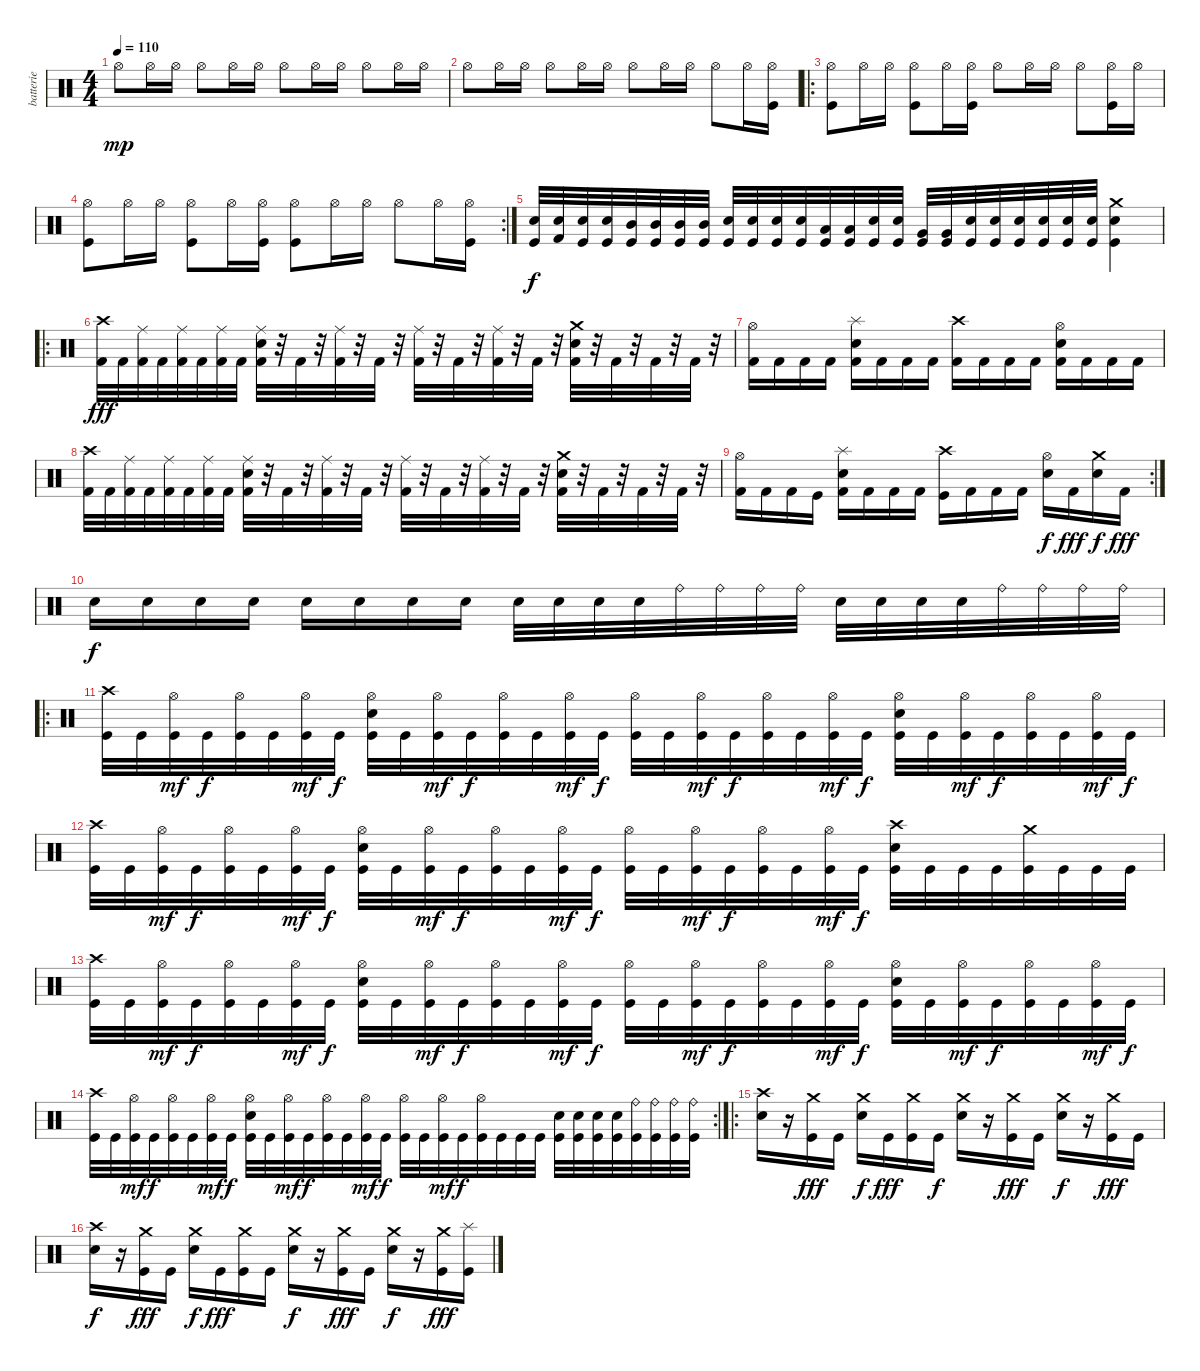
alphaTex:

\track ("batterie" "batterie") {instrument percussion}
\staff {score}
\articulation defaults
\ts (4 4)
\tempo 110
\clef neutral
\ks c "Hi-Hat (open)".8{dy mp} "Hi-Hat (open)".16 "Hi-Hat (open)".16 "Hi-Hat (open)".8 "Hi-Hat (open)".16 "Hi-Hat (open)".16 "Hi-Hat (open)".8 "Hi-Hat (open)".16 "Hi-Hat (open)".16 "Hi-Hat (open)".8 "Hi-Hat (open)".16 "Hi-Hat (open)".16
|
"Hi-Hat (open)".8 "Hi-Hat (open)".16 "Hi-Hat (open)".16 "Hi-Hat (open)".8 "Hi-Hat (open)".16 "Hi-Hat (open)".16 "Hi-Hat (open)".8 "Hi-Hat (open)".16 "Hi-Hat (open)".16 "Hi-Hat (open)".8 "Hi-Hat (open)".16 ("Hi-Hat (open)" "Kick (hit)").16 |
\ro
("Hi-Hat (open)" "Kick (hit)").8 "Hi-Hat (open)".16 "Hi-Hat (open)".16 ("Hi-Hat (open)" "Kick (hit)").8 "Hi-Hat (open)".16 ("Hi-Hat (open)" "Kick (hit)").16 "Hi-Hat (open)".8 "Hi-Hat (open)".16 "Hi-Hat (open)".16 "Hi-Hat (open)".8 ("Hi-Hat (open)" "Kick (hit)").16 "Hi-Hat (open)".16 |
\rc 2
("Hi-Hat (open)" "Kick (hit)").8 "Hi-Hat (open)".16 "Hi-Hat (open)".16 ("Hi-Hat (open)" "Kick (hit)").8 "Hi-Hat (open)".16 ("Hi-Hat (open)" "Kick (hit)").16 ("Hi-Hat (open)" "Kick (hit)").8 "Hi-Hat (open)".16 "Hi-Hat (open)".16 "Hi-Hat (open)".8 "Hi-Hat (open)".16 ("Hi-Hat (open)" "Kick (hit)").16 |
("Electric Snare (hit)" "Kick (hit)").32{dy f} ("Electric Snare (hit)" "Kick (hit) 2").32 ("Electric Snare (hit)" "Kick (hit)").32 ("Electric Snare (hit)" "Kick (hit)").32 ("Mid Tom (hit)" "Kick (hit)").32 ("Mid Tom (hit)" "Kick (hit)").32 ("Mid Tom (hit)" "Kick (hit)").32 ("Mid Tom (hit)" "Kick (hit)").32 ("Electric Snare (hit)" "Kick (hit)").32 ("Electric Snare (hit)" "Kick (hit)").32 ("Electric Snare (hit)" "Kick (hit)").32 ("Electric Snare (hit)" "Kick (hit)").32 ("Low Tom (hit)" "Kick (hit)").32 ("Low Tom (hit)" "Kick (hit)").32 ("Electric Snare (hit)" "Kick (hit)").32 ("Electric Snare (hit)" "Kick (hit)").32 ("Very Low Tom (hit)" "Kick (hit)").32 ("Very Low Tom (hit)" "Kick (hit)").32 ("Electric Snare (hit)" "Kick (hit)").32 ("Electric Snare (hit)" "Kick (hit)").32 ("Electric Snare (hit)" "Kick (hit)").32 ("Electric Snare (hit)" "Kick (hit)").32 ("Electric Snare (hit)" "Kick (hit)").32 ("Electric Snare (hit)" "Kick (hit)").32 ("Crash medium (hit)" "Electric Snare (hit)" "Kick (hit)").4 |
\ro
("Crash high (hit)" "Kick (hit) 2").32{dy fff} "Kick (hit) 2".32 ("Ride (middle)" "Kick (hit) 2").32 "Kick (hit) 2".32 ("Ride (middle)" "Kick (hit) 2").32 "Kick (hit) 2".32 ("Ride (middle)" "Kick (hit) 2").32 "Kick (hit) 2".32 ("Ride (middle)" "Electric Snare (hit)" "Kick (hit) 2").32 r.32 "Kick (hit) 2".32 r.32 ("Ride (middle)" "Kick (hit) 2").32 r.32 "Kick (hit) 2".32 r.32 ("Ride (middle)" "Kick (hit) 2").32 r.32 "Kick (hit) 2".32 r.32 ("Ride (middle)" "Kick (hit) 2").32 r.32 "Kick (hit) 2".32 r.32 ("Crash medium (hit)" "Electric Snare (hit)" "Kick (hit) 2").32 r.32 "Kick (hit) 2".32 r.32 "Kick (hit) 2".32 r.32 "Kick (hit) 2".32 r.32 |
("Hi-Hat (open)" "Kick (hit) 2").16 "Kick (hit) 2".16 "Kick (hit) 2".16 "Kick (hit) 2".16 ("Splash (hit)" "Electric Snare (hit)" "Kick (hit) 2").16 "Kick (hit) 2".16 "Kick (hit) 2".16 "Kick (hit) 2".16 ("Crash high (hit)" "Kick (hit) 2").16 "Kick (hit) 2".16 "Kick (hit) 2".16 "Kick (hit) 2".16 ("Hi-Hat (open)" "Electric Snare (hit)" "Kick (hit) 2").16 "Kick (hit) 2".16 "Kick (hit) 2".16 "Kick (hit) 2".16 |
("Crash high (hit)" "Kick (hit) 2").32 "Kick (hit) 2".32 ("Ride (middle)" "Kick (hit) 2").32 "Kick (hit) 2".32 ("Ride (middle)" "Kick (hit) 2").32 "Kick (hit) 2".32 ("Ride (middle)" "Kick (hit) 2").32 "Kick (hit) 2".32 ("Ride (middle)" "Electric Snare (hit)" "Kick (hit) 2").32 r.32 "Kick (hit) 2".32 r.32 ("Ride (middle)" "Kick (hit) 2").32 r.32 "Kick (hit) 2".32 r.32 ("Ride (middle)" "Kick (hit) 2").32 r.32 "Kick (hit) 2".32 r.32 ("Ride (middle)" "Kick (hit) 2").32 r.32 "Kick (hit) 2".32 r.32 ("Crash medium (hit)" "Electric Snare (hit)" "Kick (hit) 2").32 r.32 "Kick (hit) 2".32 r.32 "Kick (hit) 2".32 r.32 "Kick (hit) 2".32 r.32 |
\rc 2
("Hi-Hat (open)" "Kick (hit) 2").16 "Kick (hit) 2".16 "Kick (hit) 2".16 "Kick (hit)".16 ("Splash (hit)" "Electric Snare (hit)" "Kick (hit) 2").16 "Kick (hit) 2".16 "Kick (hit) 2".16 "Kick (hit) 2".16 ("Crash high (hit)" "Kick (hit)").16 "Kick (hit) 2".16 "Kick (hit) 2".16 "Kick (hit) 2".16 ("Hi-Hat (open)" "Electric Snare (hit)").16{dy f} "Kick (hit) 2".16{dy fff} ("Crash medium (hit)" "Electric Snare (hit)").16{dy f} "Kick (hit) 2".16{dy fff} |
"Electric Snare (hit)".16{dy f} "Electric Snare (hit)".16 "Electric Snare (hit)".16 "Electric Snare (hit)".16 "Electric Snare (hit)".16 "Electric Snare (hit)".16 "Electric Snare (hit)".16 "Electric Snare (hit)".16 "Electric Snare (hit)".32 "Electric Snare (hit)".32 "Electric Snare (hit)".32 "Electric Snare (hit)".32 "Ride (bell)".32 "Ride (bell)".32 "Ride (bell)".32 "Ride (bell)".32 "Electric Snare (hit)".32 "Electric Snare (hit)".32 "Electric Snare (hit)".32 "Electric Snare (hit)".32 "Ride (bell)".32 "Ride (bell)".32 "Ride (bell)".32 "Ride (bell)".32 |
\ro
("Crash high (hit)" "Kick (hit)").32 "Kick (hit)".32 ("Hi-Hat (open)" "Kick (hit)").32{dy mf} "Kick (hit)".32{dy f} ("Hi-Hat (open)" "Kick (hit)").32 "Kick (hit)".32 ("Hi-Hat (open)" "Kick (hit)").32{dy mf} "Kick (hit)".32{dy f} ("Hi-Hat (open)" "Electric Snare (hit)" "Kick (hit)").32 "Kick (hit)".32 ("Hi-Hat (open)" "Kick (hit)").32{dy mf} "Kick (hit)".32{dy f} ("Hi-Hat (open)" "Kick (hit)").32 "Kick (hit)".32 ("Hi-Hat (open)" "Kick (hit)").32{dy mf} "Kick (hit)".32{dy f} ("Hi-Hat (open)" "Kick (hit)").32 "Kick (hit)".32 ("Hi-Hat (open)" "Kick (hit)").32{dy mf} "Kick (hit)".32{dy f} ("Hi-Hat (open)" "Kick (hit)").32 "Kick (hit)".32 ("Hi-Hat (open)" "Kick (hit)").32{dy mf} "Kick (hit)".32{dy f} ("Hi-Hat (open)" "Electric Snare (hit)" "Kick (hit)").32 "Kick (hit)".32 ("Hi-Hat (open)" "Kick (hit)").32{dy mf} "Kick (hit)".32{dy f} ("Hi-Hat (open)" "Kick (hit)").32 "Kick (hit)".32 ("Hi-Hat (open)" "Kick (hit)").32{dy mf} "Kick (hit)".32{dy f} |
("Crash high (hit)" "Kick (hit)").32 "Kick (hit)".32 ("Hi-Hat (open)" "Kick (hit)").32{dy mf} "Kick (hit)".32{dy f} ("Hi-Hat (open)" "Kick (hit)").32 "Kick (hit)".32 ("Hi-Hat (open)" "Kick (hit)").32{dy mf} "Kick (hit)".32{dy f} ("Hi-Hat (open)" "Electric Snare (hit)" "Kick (hit)").32 "Kick (hit)".32 ("Hi-Hat (open)" "Kick (hit)").32{dy mf} "Kick (hit)".32{dy f} ("Hi-Hat (open)" "Kick (hit)").32 "Kick (hit)".32 ("Hi-Hat (open)" "Kick (hit)").32{dy mf} "Kick (hit)".32{dy f} ("Hi-Hat (open)" "Kick (hit)").32 "Kick (hit)".32 ("Hi-Hat (open)" "Kick (hit)").32{dy mf} "Kick (hit)".32{dy f} ("Hi-Hat (open)" "Kick (hit)").32 "Kick (hit)".32 ("Hi-Hat (open)" "Kick (hit)").32{dy mf} "Kick (hit)".32{dy f} ("Crash high (hit)" "Electric Snare (hit)" "Kick (hit)").32 "Kick (hit)".32 "Kick (hit)".32 "Kick (hit)".32 ("Crash medium (hit)" "Kick (hit)").32 "Kick (hit)".32 "Kick (hit)".32 "Kick (hit)".32 |
("Crash high (hit)" "Kick (hit)").32 "Kick (hit)".32 ("Hi-Hat (open)" "Kick (hit)").32{dy mf} "Kick (hit)".32{dy f} ("Hi-Hat (open)" "Kick (hit)").32 "Kick (hit)".32 ("Hi-Hat (open)" "Kick (hit)").32{dy mf} "Kick (hit)".32{dy f} ("Hi-Hat (open)" "Electric Snare (hit)" "Kick (hit)").32 "Kick (hit)".32 ("Hi-Hat (open)" "Kick (hit)").32{dy mf} "Kick (hit)".32{dy f} ("Hi-Hat (open)" "Kick (hit)").32 "Kick (hit)".32 ("Hi-Hat (open)" "Kick (hit)").32{dy mf} "Kick (hit)".32{dy f} ("Hi-Hat (open)" "Kick (hit)").32 "Kick (hit)".32 ("Hi-Hat (open)" "Kick (hit)").32{dy mf} "Kick (hit)".32{dy f} ("Hi-Hat (open)" "Kick (hit)").32 "Kick (hit)".32 ("Hi-Hat (open)" "Kick (hit)").32{dy mf} "Kick (hit)".32{dy f} ("Hi-Hat (open)" "Electric Snare (hit)" "Kick (hit)").32 "Kick (hit)".32 ("Hi-Hat (open)" "Kick (hit)").32{dy mf} "Kick (hit)".32{dy f} ("Hi-Hat (open)" "Kick (hit)").32 "Kick (hit)".32 ("Hi-Hat (open)" "Kick (hit)").32{dy mf} "Kick (hit)".32{dy f} |
\rc 2
("Crash high (hit)" "Kick (hit)").32 "Kick (hit)".32 ("Hi-Hat (open)" "Kick (hit)").32{dy mf} "Kick (hit)".32{dy f} ("Hi-Hat (open)" "Kick (hit)").32 "Kick (hit)".32 ("Hi-Hat (open)" "Kick (hit)").32{dy mf} "Kick (hit)".32{dy f} ("Hi-Hat (open)" "Electric Snare (hit)" "Kick (hit)").32 "Kick (hit)".32 ("Hi-Hat (open)" "Kick (hit)").32{dy mf} "Kick (hit)".32{dy f} ("Hi-Hat (open)" "Kick (hit)").32 "Kick (hit)".32 ("Hi-Hat (open)" "Kick (hit)").32{dy mf} "Kick (hit)".32{dy f} ("Hi-Hat (open)" "Kick (hit)").32 "Kick (hit)".32 ("Hi-Hat (open)" "Kick (hit)").32{dy mf} "Kick (hit)".32{dy f} ("Hi-Hat (open)" "Kick (hit)").32 "Kick (hit)".32 "Kick (hit)".32 "Kick (hit)".32 ("Electric Snare (hit)" "Kick (hit)").32 ("Electric Snare (hit)" "Kick (hit)").32 ("Electric Snare (hit)" "Kick (hit)").32 ("Electric Snare (hit)" "Kick (hit)").32 ("Ride (bell)" "Kick (hit)").32 ("Ride (bell)" "Kick (hit)").32 ("Ride (bell)" "Kick (hit)").32 ("Ride (bell)" "Kick (hit)").32 |
\ro
("Crash high (hit)" "Electric Snare (hit)").16 r.16 ("Crash medium (hit)" "Kick (hit)").16{dy fff} "Kick (hit)".16 ("Crash medium (hit)" "Electric Snare (hit)").16{dy f} "Kick (hit)".16{dy fff} ("Crash medium (hit)" "Kick (hit)").16 "Kick (hit)".16{dy f} ("Crash medium (hit)" "Electric Snare (hit)").16 r.16 ("Crash medium (hit)" "Kick (hit)").16{dy fff} "Kick (hit)".16 ("Crash medium (hit)" "Electric Snare (hit)").16{dy f} r.16 ("Crash medium (hit)" "Kick (hit)").16{dy fff} "Kick (hit)".16 |
("Crash high (hit)" "Electric Snare (hit)").16{dy f} r.16 ("Crash medium (hit)" "Kick (hit)").16{dy fff} "Kick (hit)".16 ("Crash medium (hit)" "Electric Snare (hit)").16{dy f} "Kick (hit)".16{dy fff} ("Crash medium (hit)" "Kick (hit)").16 "Kick (hit)".16 ("Crash medium (hit)" "Electric Snare (hit)").16{dy f} r.16 ("Crash medium (hit)" "Kick (hit)").16{dy fff} "Kick (hit)".16 ("Crash medium (hit)" "Electric Snare (hit)").16{dy f} r.16 ("Crash medium (hit)" "Kick (hit)").16{dy fff} ("Splash (hit)" "Kick (hit)").16
